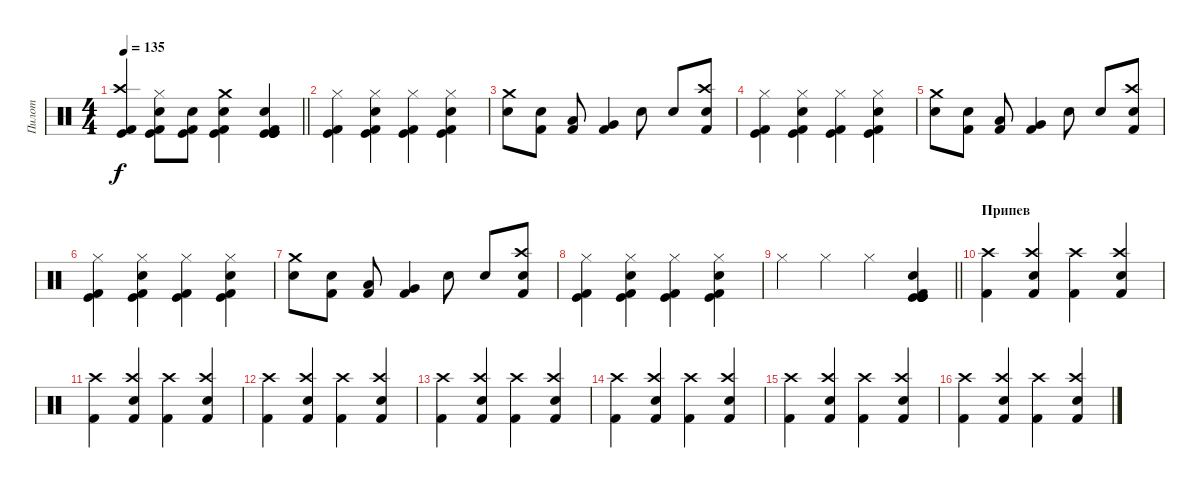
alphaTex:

\track ("Пилот" "Пилот") {instrument percussion}
\staff {score}
\articulation defaults
\ts (4 4)
\tempo 135
\clef neutral
\barLineRight lightlight
\ks c
("Kick (hit) 2" "Crash high (hit)" "Kick (hit)").4{dy f} ("Kick (hit) 2" "Snare (hit) 2" "Hi-Hat (closed)" "Kick (hit)").8 ("Kick (hit) 2" "Snare (hit) 2" "Kick (hit)").8 ("Kick (hit) 2" "Snare (hit) 2" "Crash medium (hit)" "Kick (hit)").4 ("Kick (hit) 2" "Snare (hit) 2" "Kick (hit)" "Kick (hit)" "Kick (hit)" "Kick (hit)").4 |
("Kick (hit) 2" "Hi-Hat (closed)" "Kick (hit)").4 ("Kick (hit) 2" "Snare (hit) 2" "Hi-Hat (closed)" "Kick (hit)").4 ("Kick (hit) 2" "Hi-Hat (closed)" "Kick (hit)").4 ("Kick (hit) 2" "Snare (hit) 2" "Hi-Hat (closed)" "Kick (hit)").4 |
("Crash medium (hit)" "Snare (hit) 2").8 ("Kick (hit) 2" "Snare (hit) 2").8 ("Kick (hit) 2" "Low Tom (hit)").8 ("Kick (hit) 2" "Very Low Tom (hit)").4 "Snare (hit) 2".8 "Snare (hit) 2".8 ("Kick (hit) 2" "Crash high (hit)" "Snare (hit) 2").8 |
("Kick (hit) 2" "Hi-Hat (closed)" "Kick (hit)").4 ("Kick (hit) 2" "Snare (hit) 2" "Hi-Hat (closed)" "Kick (hit)").4 ("Kick (hit) 2" "Hi-Hat (closed)" "Kick (hit)").4 ("Kick (hit) 2" "Snare (hit) 2" "Hi-Hat (closed)" "Kick (hit)").4 |
("Crash medium (hit)" "Snare (hit) 2").8 ("Kick (hit) 2" "Snare (hit) 2").8 ("Kick (hit) 2" "Low Tom (hit)").8 ("Kick (hit) 2" "Very Low Tom (hit)").4 "Snare (hit) 2".8 "Snare (hit) 2".8 ("Kick (hit) 2" "Crash high (hit)" "Snare (hit) 2").8 |
("Kick (hit) 2" "Hi-Hat (closed)" "Kick (hit)").4 ("Kick (hit) 2" "Snare (hit) 2" "Hi-Hat (closed)" "Kick (hit)").4 ("Kick (hit) 2" "Hi-Hat (closed)" "Kick (hit)").4 ("Kick (hit) 2" "Snare (hit) 2" "Hi-Hat (closed)" "Kick (hit)").4 |
("Crash medium (hit)" "Snare (hit) 2").8 ("Kick (hit) 2" "Snare (hit) 2").8 ("Kick (hit) 2" "Low Tom (hit)").8 ("Kick (hit) 2" "Very Low Tom (hit)").4 "Snare (hit) 2".8 "Snare (hit) 2".8 ("Kick (hit) 2" "Crash high (hit)" "Snare (hit) 2").8 |
("Kick (hit) 2" "Hi-Hat (closed)" "Kick (hit)").4 ("Kick (hit) 2" "Snare (hit) 2" "Hi-Hat (closed)" "Kick (hit)").4 ("Kick (hit) 2" "Hi-Hat (closed)" "Kick (hit)").4 ("Kick (hit) 2" "Snare (hit) 2" "Hi-Hat (closed)" "Kick (hit)").4 |
\barLineRight lightlight "Hi-Hat (closed)".4 "Hi-Hat (closed)".4 "Hi-Hat (closed)".4
("Kick (hit) 2" "Snare (hit) 2" "Kick (hit)" "Kick (hit)" "Kick (hit)" "Kick (hit)").4 |
\section ("" "Припев")
("Crash high (hit)" "Kick (hit) 2").4 ("Crash high (hit)" "Kick (hit) 2" "Snare (hit) 2").4 ("Crash high (hit)" "Kick (hit) 2").4 ("Crash high (hit)" "Kick (hit) 2" "Snare (hit) 2").4 |
("Crash high (hit)" "Kick (hit) 2").4 ("Crash high (hit)" "Kick (hit) 2" "Snare (hit) 2").4 ("Crash high (hit)" "Kick (hit) 2").4 ("Crash high (hit)" "Kick (hit) 2" "Snare (hit) 2").4 |
("Crash high (hit)" "Kick (hit) 2").4 ("Crash high (hit)" "Kick (hit) 2" "Snare (hit) 2").4 ("Crash high (hit)" "Kick (hit) 2").4 ("Crash high (hit)" "Kick (hit) 2" "Snare (hit) 2").4 |
("Crash high (hit)" "Kick (hit) 2").4 ("Crash high (hit)" "Kick (hit) 2" "Snare (hit) 2").4 ("Crash high (hit)" "Kick (hit) 2").4 ("Crash high (hit)" "Kick (hit) 2" "Snare (hit) 2").4 |
("Crash high (hit)" "Kick (hit) 2").4 ("Crash high (hit)" "Kick (hit) 2" "Snare (hit) 2").4 ("Crash high (hit)" "Kick (hit) 2").4 ("Crash high (hit)" "Kick (hit) 2" "Snare (hit) 2").4 |
("Crash high (hit)" "Kick (hit) 2").4 ("Crash high (hit)" "Kick (hit) 2" "Snare (hit) 2").4 ("Crash high (hit)" "Kick (hit) 2").4 ("Crash high (hit)" "Kick (hit) 2" "Snare (hit) 2").4 |
("Crash high (hit)" "Kick (hit) 2").4 ("Crash high (hit)" "Kick (hit) 2" "Snare (hit) 2").4 ("Crash high (hit)" "Kick (hit) 2").4 ("Crash high (hit)" "Kick (hit) 2" "Snare (hit) 2").4
